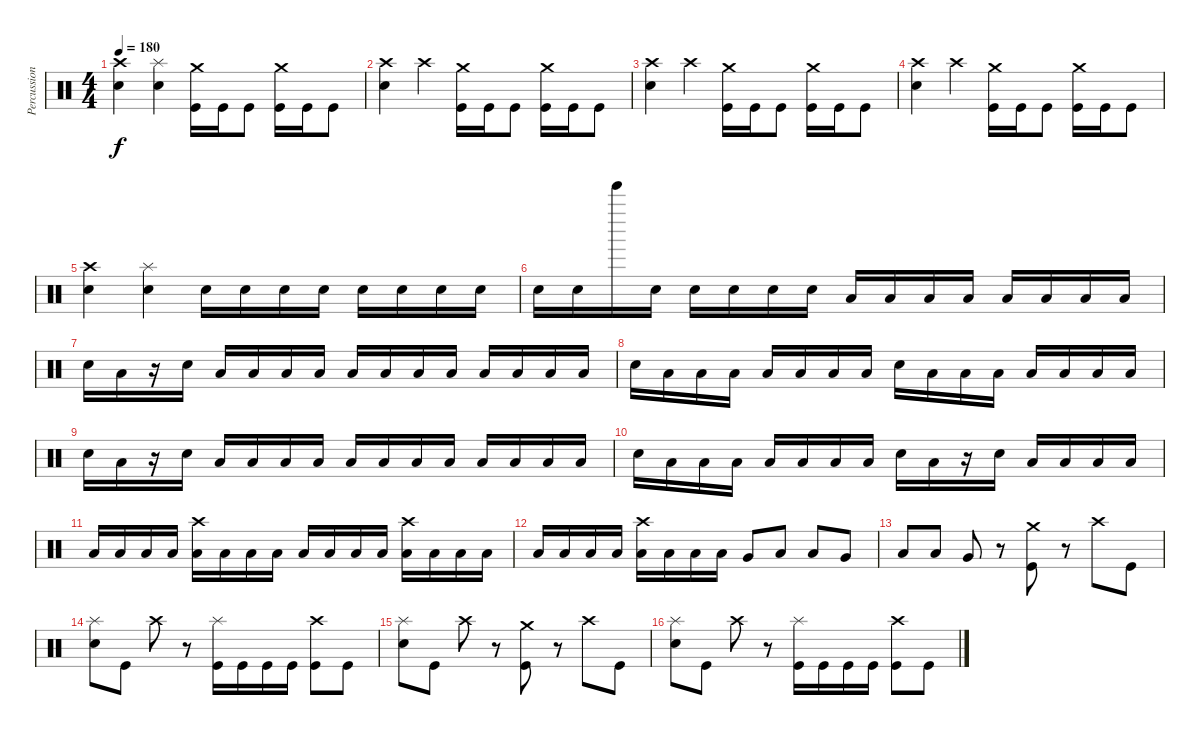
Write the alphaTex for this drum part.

\track ("Percussion" "Percussion") {instrument percussion}
\staff {score}
\articulation defaults
\ts (4 4)
\tempo 180
\clef neutral
\ks c
("Crash high (hit)" "Snare (hit) 2").4{dy f} ("Splash (hit)" "Snare (hit) 2").4 ("Crash medium (hit)" "Kick (hit)").16 "Kick (hit)".16 "Kick (hit)".8 ("Crash medium (hit)" "Kick (hit)").16 "Kick (hit)".16 "Kick (hit)".8 |
("Crash high (hit)" "Snare (hit) 2").4 "Crash high (hit)".4 ("Crash medium (hit)" "Kick (hit)").16 "Kick (hit)".16 "Kick (hit)".8 ("Crash medium (hit)" "Kick (hit)").16 "Kick (hit)".16 "Kick (hit)".8 |
("Crash high (hit)" "Snare (hit) 2").4 "Crash high (hit)".4 ("Crash medium (hit)" "Kick (hit)").16 "Kick (hit)".16 "Kick (hit)".8 ("Crash medium (hit)" "Kick (hit)").16 "Kick (hit)".16 "Kick (hit)".8 |
("Crash high (hit)" "Snare (hit) 2").4 "Crash high (hit)".4 ("Crash medium (hit)" "Kick (hit)").16 "Kick (hit)".16 "Kick (hit)".8 ("Crash medium (hit)" "Kick (hit)").16 "Kick (hit)".16 "Kick (hit)".8 |
("Crash high (hit)" "Snare (hit) 2").4 ("Splash (hit)" "Snare (hit) 2").4 "Snare (hit) 2".16{volume 14} "Snare (hit) 2".16 "Snare (hit) 2".16 "Snare (hit) 2".16 "Snare (hit) 2".16 "Snare (hit) 2".16 "Snare (hit) 2".16 "Snare (hit) 2".16 |
"Snare (hit) 2".16 "Snare (hit) 2".16 "Tinkle Bell (hit)".16 "Snare (hit) 2".16 "Snare (hit) 2".16 "Snare (hit) 2".16 "Snare (hit) 2".16 "Snare (hit) 2".16 "Low Tom (hit)".16 "Low Tom (hit)".16 "Low Tom (hit)".16 "Low Tom (hit)".16 "Low Tom (hit)".16 "Low Tom (hit)".16 "Low Tom (hit)".16 "Low Tom (hit)".16 |
"Snare (hit) 2".16 "Low Tom (hit)".16 r.16 "Snare (hit) 2".16 "Low Tom (hit)".16 "Low Tom (hit)".16 "Low Tom (hit)".16 "Low Tom (hit)".16 "Low Tom (hit)".16 "Low Tom (hit)".16 "Low Tom (hit)".16 "Low Tom (hit)".16 "Low Tom (hit)".16 "Low Tom (hit)".16 "Low Tom (hit)".16 "Low Tom (hit)".16 |
"Snare (hit) 2".16 "Low Tom (hit)".16 "Low Tom (hit)".16 "Low Tom (hit)".16 "Low Tom (hit)".16 "Low Tom (hit)".16 "Low Tom (hit)".16 "Low Tom (hit)".16 "Snare (hit) 2".16 "Low Tom (hit)".16 "Low Tom (hit)".16 "Low Tom (hit)".16 "Low Tom (hit)".16 "Low Tom (hit)".16 "Low Tom (hit)".16 "Low Tom (hit)".16 |
"Snare (hit) 2".16 "Low Tom (hit)".16 r.16 "Snare (hit) 2".16 "Low Tom (hit)".16 "Low Tom (hit)".16 "Low Tom (hit)".16 "Low Tom (hit)".16 "Low Tom (hit)".16 "Low Tom (hit)".16 "Low Tom (hit)".16 "Low Tom (hit)".16 "Low Tom (hit)".16 "Low Tom (hit)".16 "Low Tom (hit)".16 "Low Tom (hit)".16 |
"Snare (hit) 2".16 "Low Tom (hit)".16 "Low Tom (hit)".16 "Low Tom (hit)".16 "Low Tom (hit)".16 "Low Tom (hit)".16 "Low Tom (hit)".16 "Low Tom (hit)".16 "Snare (hit) 2".16 "Low Tom (hit)".16 r.16 "Snare (hit) 2".16 "Low Tom (hit)".16 "Low Tom (hit)".16 "Low Tom (hit)".16 "Low Tom (hit)".16 |
"Low Tom (hit)".16 "Low Tom (hit)".16 "Low Tom (hit)".16 "Low Tom (hit)".16 ("Crash high (hit)" "Low Tom (hit)").16 "Low Tom (hit)".16 "Low Tom (hit)".16 "Low Tom (hit)".16 "Low Tom (hit)".16 "Low Tom (hit)".16 "Low Tom (hit)".16 "Low Tom (hit)".16 ("Crash high (hit)" "Low Tom (hit)").16 "Low Tom (hit)".16 "Low Tom (hit)".16 "Low Tom (hit)".16 |
"Low Tom (hit)".16 "Low Tom (hit)".16 "Low Tom (hit)".16 "Low Tom (hit)".16 ("Crash high (hit)" "Low Tom (hit)").16 "Low Tom (hit)".16 "Low Tom (hit)".16 "Low Tom (hit)".16 "Very Low Tom (hit)".8 "Low Floor Tom (hit)".8 "Low Floor Tom (hit)".8 "Very Low Tom (hit)".8 |
"Low Floor Tom (hit)".8 "Low Floor Tom (hit)".8 "Very Low Tom (hit)".8 r.8 ("Crash medium (hit)" "Kick (hit)").8{volume 16} r.8 "Crash high (hit)".8 "Kick (hit)".8 |
("Splash (hit)" "Snare (hit) 2").8 "Kick (hit)".8 "Crash high (hit)".8 r.8 ("Splash (hit)" "Kick (hit)").16 "Kick (hit)".16 "Kick (hit)".16 "Kick (hit)".16 ("Crash high (hit)" "Kick (hit)").8 "Kick (hit)".8 |
("Splash (hit)" "Snare (hit) 2").8 "Kick (hit)".8 "Crash high (hit)".8 r.8 ("Crash medium (hit)" "Kick (hit)").8 r.8 "Crash high (hit)".8 "Kick (hit)".8 |
("Splash (hit)" "Snare (hit) 2").8 "Kick (hit)".8 "Crash high (hit)".8 r.8 ("Splash (hit)" "Kick (hit)").16 "Kick (hit)".16 "Kick (hit)".16 "Kick (hit)".16 ("Crash high (hit)" "Kick (hit)").8 "Kick (hit)".8
